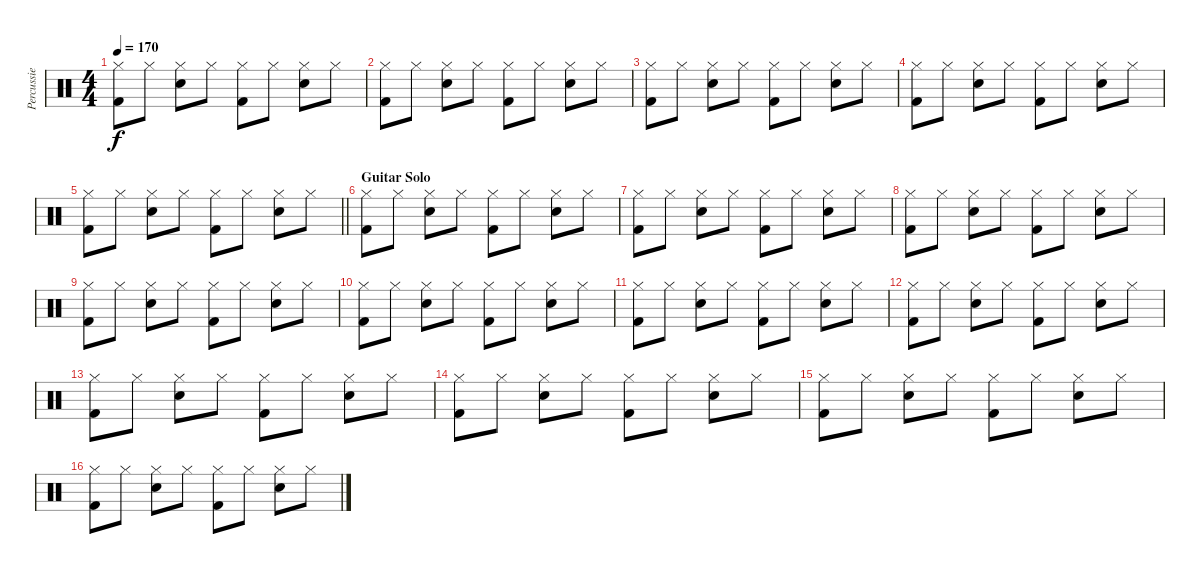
\track ("Percussie" "Percussie") {instrument percussion}
\staff {score}
\articulation defaults
\ts (4 4)
\tempo 170
\clef neutral
\ks c
("Hi-Hat (closed)" "Kick (hit) 2").8{dy f} "Hi-Hat (closed)".8 ("Hi-Hat (closed)" "Electric Snare (hit)").8 "Hi-Hat (closed)".8 ("Hi-Hat (closed)" "Kick (hit) 2").8 "Hi-Hat (closed)".8 ("Hi-Hat (closed)" "Electric Snare (hit)").8 "Hi-Hat (closed)".8 |
("Hi-Hat (closed)" "Kick (hit) 2").8 "Hi-Hat (closed)".8 ("Hi-Hat (closed)" "Electric Snare (hit)").8 "Hi-Hat (closed)".8 ("Hi-Hat (closed)" "Kick (hit) 2").8 "Hi-Hat (closed)".8 ("Hi-Hat (closed)" "Electric Snare (hit)").8 "Hi-Hat (closed)".8 |
("Hi-Hat (closed)" "Kick (hit) 2").8 "Hi-Hat (closed)".8 ("Hi-Hat (closed)" "Electric Snare (hit)").8 "Hi-Hat (closed)".8 ("Hi-Hat (closed)" "Kick (hit) 2").8 "Hi-Hat (closed)".8 ("Hi-Hat (closed)" "Electric Snare (hit)").8 "Hi-Hat (closed)".8 |
("Hi-Hat (closed)" "Kick (hit) 2").8 "Hi-Hat (closed)".8 ("Hi-Hat (closed)" "Electric Snare (hit)").8 "Hi-Hat (closed)".8 ("Hi-Hat (closed)" "Kick (hit) 2").8 "Hi-Hat (closed)".8 ("Hi-Hat (closed)" "Electric Snare (hit)").8 "Hi-Hat (closed)".8 |
\barLineRight lightlight
("Hi-Hat (closed)" "Kick (hit) 2").8 "Hi-Hat (closed)".8 ("Hi-Hat (closed)" "Electric Snare (hit)").8 "Hi-Hat (closed)".8 ("Hi-Hat (closed)" "Kick (hit) 2").8 "Hi-Hat (closed)".8 ("Hi-Hat (closed)" "Electric Snare (hit)").8 "Hi-Hat (closed)".8 |
\section ("" "Guitar Solo")
("Hi-Hat (closed)" "Kick (hit) 2").8 "Hi-Hat (closed)".8 ("Hi-Hat (closed)" "Electric Snare (hit)").8 "Hi-Hat (closed)".8 ("Hi-Hat (closed)" "Kick (hit) 2").8 "Hi-Hat (closed)".8 ("Hi-Hat (closed)" "Electric Snare (hit)").8 "Hi-Hat (closed)".8 |
("Hi-Hat (closed)" "Kick (hit) 2").8 "Hi-Hat (closed)".8 ("Hi-Hat (closed)" "Electric Snare (hit)").8 "Hi-Hat (closed)".8 ("Hi-Hat (closed)" "Kick (hit) 2").8 "Hi-Hat (closed)".8 ("Hi-Hat (closed)" "Electric Snare (hit)").8 "Hi-Hat (closed)".8 |
("Hi-Hat (closed)" "Kick (hit) 2").8 "Hi-Hat (closed)".8 ("Hi-Hat (closed)" "Electric Snare (hit)").8 "Hi-Hat (closed)".8 ("Hi-Hat (closed)" "Kick (hit) 2").8 "Hi-Hat (closed)".8 ("Hi-Hat (closed)" "Electric Snare (hit)").8 "Hi-Hat (closed)".8 |
("Hi-Hat (closed)" "Kick (hit) 2").8 "Hi-Hat (closed)".8 ("Hi-Hat (closed)" "Electric Snare (hit)").8 "Hi-Hat (closed)".8 ("Hi-Hat (closed)" "Kick (hit) 2").8 "Hi-Hat (closed)".8 ("Hi-Hat (closed)" "Electric Snare (hit)").8 "Hi-Hat (closed)".8 |
("Hi-Hat (closed)" "Kick (hit) 2").8 "Hi-Hat (closed)".8 ("Hi-Hat (closed)" "Electric Snare (hit)").8 "Hi-Hat (closed)".8 ("Hi-Hat (closed)" "Kick (hit) 2").8 "Hi-Hat (closed)".8 ("Hi-Hat (closed)" "Electric Snare (hit)").8 "Hi-Hat (closed)".8 |
("Hi-Hat (closed)" "Kick (hit) 2").8 "Hi-Hat (closed)".8 ("Hi-Hat (closed)" "Electric Snare (hit)").8 "Hi-Hat (closed)".8 ("Hi-Hat (closed)" "Kick (hit) 2").8 "Hi-Hat (closed)".8 ("Hi-Hat (closed)" "Electric Snare (hit)").8 "Hi-Hat (closed)".8 |
("Hi-Hat (closed)" "Kick (hit) 2").8 "Hi-Hat (closed)".8 ("Hi-Hat (closed)" "Electric Snare (hit)").8 "Hi-Hat (closed)".8 ("Hi-Hat (closed)" "Kick (hit) 2").8 "Hi-Hat (closed)".8 ("Hi-Hat (closed)" "Electric Snare (hit)").8 "Hi-Hat (closed)".8 |
("Hi-Hat (closed)" "Kick (hit) 2").8 "Hi-Hat (closed)".8 ("Hi-Hat (closed)" "Electric Snare (hit)").8 "Hi-Hat (closed)".8 ("Hi-Hat (closed)" "Kick (hit) 2").8 "Hi-Hat (closed)".8 ("Hi-Hat (closed)" "Electric Snare (hit)").8 "Hi-Hat (closed)".8 |
("Hi-Hat (closed)" "Kick (hit) 2").8 "Hi-Hat (closed)".8 ("Hi-Hat (closed)" "Electric Snare (hit)").8 "Hi-Hat (closed)".8 ("Hi-Hat (closed)" "Kick (hit) 2").8 "Hi-Hat (closed)".8 ("Hi-Hat (closed)" "Electric Snare (hit)").8 "Hi-Hat (closed)".8 |
("Hi-Hat (closed)" "Kick (hit) 2").8 "Hi-Hat (closed)".8 ("Hi-Hat (closed)" "Electric Snare (hit)").8 "Hi-Hat (closed)".8 ("Hi-Hat (closed)" "Kick (hit) 2").8 "Hi-Hat (closed)".8 ("Hi-Hat (closed)" "Electric Snare (hit)").8 "Hi-Hat (closed)".8 |
("Hi-Hat (closed)" "Kick (hit) 2").8 "Hi-Hat (closed)".8 ("Hi-Hat (closed)" "Electric Snare (hit)").8 "Hi-Hat (closed)".8 ("Hi-Hat (closed)" "Kick (hit) 2").8 "Hi-Hat (closed)".8 ("Hi-Hat (closed)" "Electric Snare (hit)").8 "Hi-Hat (closed)".8
